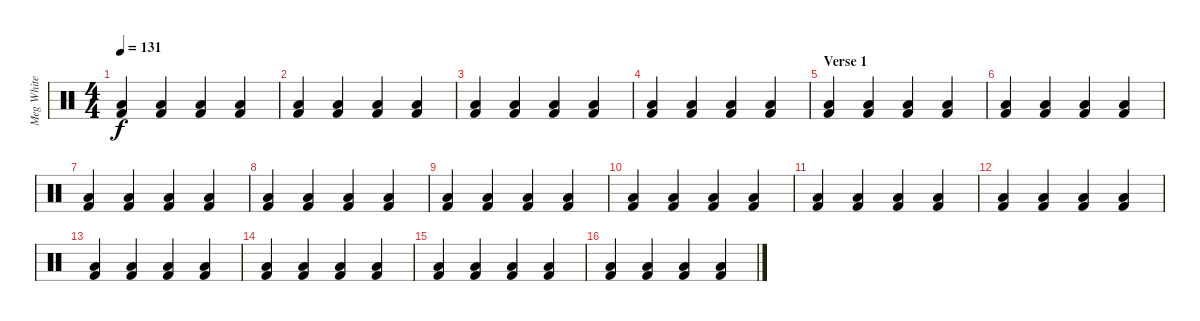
\track ("Meg White - Drums" "Meg White ") {instrument percussion}
\staff {score}
\articulation defaults
\ts (4 4)
\tempo 131
\clef neutral
\ks c
("Low Floor Tom (hit)" "Kick (hit) 2").4{dy f} ("Low Floor Tom (hit)" "Kick (hit) 2").4 ("Low Floor Tom (hit)" "Kick (hit) 2").4 ("Low Floor Tom (hit)" "Kick (hit) 2").4 |
("Low Floor Tom (hit)" "Kick (hit) 2").4 ("Low Floor Tom (hit)" "Kick (hit) 2").4 ("Low Floor Tom (hit)" "Kick (hit) 2").4 ("Low Floor Tom (hit)" "Kick (hit) 2").4 |
("Low Floor Tom (hit)" "Kick (hit) 2").4 ("Low Floor Tom (hit)" "Kick (hit) 2").4 ("Low Floor Tom (hit)" "Kick (hit) 2").4 ("Low Floor Tom (hit)" "Kick (hit) 2").4 |
("Low Floor Tom (hit)" "Kick (hit) 2").4 ("Low Floor Tom (hit)" "Kick (hit) 2").4 ("Low Floor Tom (hit)" "Kick (hit) 2").4 ("Low Floor Tom (hit)" "Kick (hit) 2").4 |
\section ("" "Verse 1")
("Low Floor Tom (hit)" "Kick (hit) 2").4 ("Low Floor Tom (hit)" "Kick (hit) 2").4 ("Low Floor Tom (hit)" "Kick (hit) 2").4 ("Low Floor Tom (hit)" "Kick (hit) 2").4 |
("Low Floor Tom (hit)" "Kick (hit) 2").4 ("Low Floor Tom (hit)" "Kick (hit) 2").4 ("Low Floor Tom (hit)" "Kick (hit) 2").4 ("Low Floor Tom (hit)" "Kick (hit) 2").4 |
("Low Floor Tom (hit)" "Kick (hit) 2").4 ("Low Floor Tom (hit)" "Kick (hit) 2").4 ("Low Floor Tom (hit)" "Kick (hit) 2").4 ("Low Floor Tom (hit)" "Kick (hit) 2").4 |
("Low Floor Tom (hit)" "Kick (hit) 2").4 ("Low Floor Tom (hit)" "Kick (hit) 2").4 ("Low Floor Tom (hit)" "Kick (hit) 2").4 ("Low Floor Tom (hit)" "Kick (hit) 2").4 |
("Low Floor Tom (hit)" "Kick (hit) 2").4 ("Low Floor Tom (hit)" "Kick (hit) 2").4 ("Low Floor Tom (hit)" "Kick (hit) 2").4 ("Low Floor Tom (hit)" "Kick (hit) 2").4 |
("Low Floor Tom (hit)" "Kick (hit) 2").4 ("Low Floor Tom (hit)" "Kick (hit) 2").4 ("Low Floor Tom (hit)" "Kick (hit) 2").4 ("Low Floor Tom (hit)" "Kick (hit) 2").4 |
("Low Floor Tom (hit)" "Kick (hit) 2").4 ("Low Floor Tom (hit)" "Kick (hit) 2").4 ("Low Floor Tom (hit)" "Kick (hit) 2").4 ("Low Floor Tom (hit)" "Kick (hit) 2").4 |
("Low Floor Tom (hit)" "Kick (hit) 2").4 ("Low Floor Tom (hit)" "Kick (hit) 2").4 ("Low Floor Tom (hit)" "Kick (hit) 2").4 ("Low Floor Tom (hit)" "Kick (hit) 2").4 |
("Low Floor Tom (hit)" "Kick (hit) 2").4 ("Low Floor Tom (hit)" "Kick (hit) 2").4 ("Low Floor Tom (hit)" "Kick (hit) 2").4 ("Low Floor Tom (hit)" "Kick (hit) 2").4 |
("Low Floor Tom (hit)" "Kick (hit) 2").4 ("Low Floor Tom (hit)" "Kick (hit) 2").4 ("Low Floor Tom (hit)" "Kick (hit) 2").4 ("Low Floor Tom (hit)" "Kick (hit) 2").4 |
("Low Floor Tom (hit)" "Kick (hit) 2").4 ("Low Floor Tom (hit)" "Kick (hit) 2").4 ("Low Floor Tom (hit)" "Kick (hit) 2").4 ("Low Floor Tom (hit)" "Kick (hit) 2").4 |
("Low Floor Tom (hit)" "Kick (hit) 2").4 ("Low Floor Tom (hit)" "Kick (hit) 2").4 ("Low Floor Tom (hit)" "Kick (hit) 2").4 ("Low Floor Tom (hit)" "Kick (hit) 2").4
